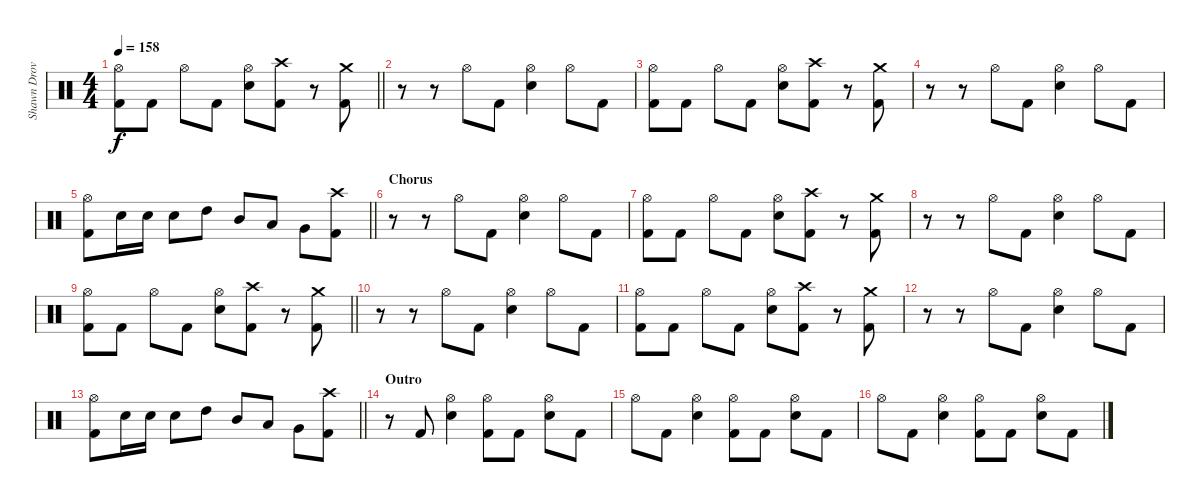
\track ("Shawn Drover" "Shawn Drov") {instrument percussion}
\staff
\articulation defaults
\ts (4 4)
\tempo 158
\clef neutral
\barLineRight lightlight
\ks c
("Hi-Hat (open)" "Kick (hit) 2").8{dy f} "Kick (hit) 2".8 "Hi-Hat (open)".8 "Kick (hit) 2".8 ("Hi-Hat (open)" "Snare (hit) 2").8 ("Crash high (hit)" "Kick (hit) 2").8 r.8 ("Crash medium (hit)" "Kick (hit) 2").8 |
r.8 r.8 "Hi-Hat (open)".8 "Kick (hit) 2".8 ("Hi-Hat (open)" "Snare (hit) 2").4 "Hi-Hat (open)".8 "Kick (hit) 2".8 |
("Hi-Hat (open)" "Kick (hit) 2").8 "Kick (hit) 2".8 "Hi-Hat (open)".8 "Kick (hit) 2".8 ("Hi-Hat (open)" "Snare (hit) 2").8 ("Crash high (hit)" "Kick (hit) 2").8 r.8 ("Crash medium (hit)" "Kick (hit) 2").8 |
r.8 r.8 "Hi-Hat (open)".8 "Kick (hit) 2".8 ("Hi-Hat (open)" "Snare (hit) 2").4 "Hi-Hat (open)".8 "Kick (hit) 2".8 |
\barLineRight lightlight
("Hi-Hat (open)" "Kick (hit) 2").8 "Snare (hit) 2".16 "Snare (hit) 2".16 "Snare (hit) 2".8 "High Tom (hit)".8 "Mid Tom (hit)".8 "Low Tom (hit)".8 "Very Low Tom (hit)".8 ("Crash high (hit)" "Kick (hit) 2").8 |
\section ("" "Chorus")
r.8 r.8 "Hi-Hat (open)".8 "Kick (hit) 2".8 ("Hi-Hat (open)" "Snare (hit) 2").4 "Hi-Hat (open)".8 "Kick (hit) 2".8 |
("Hi-Hat (open)" "Kick (hit) 2").8 "Kick (hit) 2".8 "Hi-Hat (open)".8 "Kick (hit) 2".8 ("Hi-Hat (open)" "Snare (hit) 2").8 ("Crash high (hit)" "Kick (hit) 2").8 r.8 ("Crash medium (hit)" "Kick (hit) 2").8 |
r.8 r.8 "Hi-Hat (open)".8 "Kick (hit) 2".8 ("Hi-Hat (open)" "Snare (hit) 2").4 "Hi-Hat (open)".8 "Kick (hit) 2".8 |
\barLineRight lightlight
("Hi-Hat (open)" "Kick (hit) 2").8 "Kick (hit) 2".8 "Hi-Hat (open)".8 "Kick (hit) 2".8 ("Hi-Hat (open)" "Snare (hit) 2").8 ("Crash high (hit)" "Kick (hit) 2").8 r.8 ("Crash medium (hit)" "Kick (hit) 2").8 |
r.8 r.8 "Hi-Hat (open)".8 "Kick (hit) 2".8 ("Hi-Hat (open)" "Snare (hit) 2").4 "Hi-Hat (open)".8 "Kick (hit) 2".8 |
("Hi-Hat (open)" "Kick (hit) 2").8 "Kick (hit) 2".8 "Hi-Hat (open)".8 "Kick (hit) 2".8 ("Hi-Hat (open)" "Snare (hit) 2").8 ("Crash high (hit)" "Kick (hit) 2").8 r.8 ("Crash medium (hit)" "Kick (hit) 2").8 |
r.8 r.8 "Hi-Hat (open)".8 "Kick (hit) 2".8 ("Hi-Hat (open)" "Snare (hit) 2").4 "Hi-Hat (open)".8 "Kick (hit) 2".8 |
\barLineRight lightlight
("Hi-Hat (open)" "Kick (hit) 2").8 "Snare (hit) 2".16 "Snare (hit) 2".16 "Snare (hit) 2".8 "High Tom (hit)".8 "Mid Tom (hit)".8 "Low Tom (hit)".8 "Very Low Tom (hit)".8 ("Crash high (hit)" "Kick (hit) 2").8 |
\section ("" "Outro")
r.8 "Kick (hit) 2".8 ("Hi-Hat (open)" "Snare (hit) 2").4 ("Hi-Hat (open)" "Kick (hit) 2").8 "Kick (hit) 2".8 ("Hi-Hat (open)" "Snare (hit) 2").8 "Kick (hit) 2".8 |
"Hi-Hat (open)".8 "Kick (hit) 2".8 ("Hi-Hat (open)" "Snare (hit) 2").4 ("Hi-Hat (open)" "Kick (hit) 2").8 "Kick (hit) 2".8 ("Hi-Hat (open)" "Snare (hit) 2").8 "Kick (hit) 2".8 |
"Hi-Hat (open)".8 "Kick (hit) 2".8 ("Hi-Hat (open)" "Snare (hit) 2").4 ("Hi-Hat (open)" "Kick (hit) 2").8 "Kick (hit) 2".8 ("Hi-Hat (open)" "Snare (hit) 2").8 "Kick (hit) 2".8
